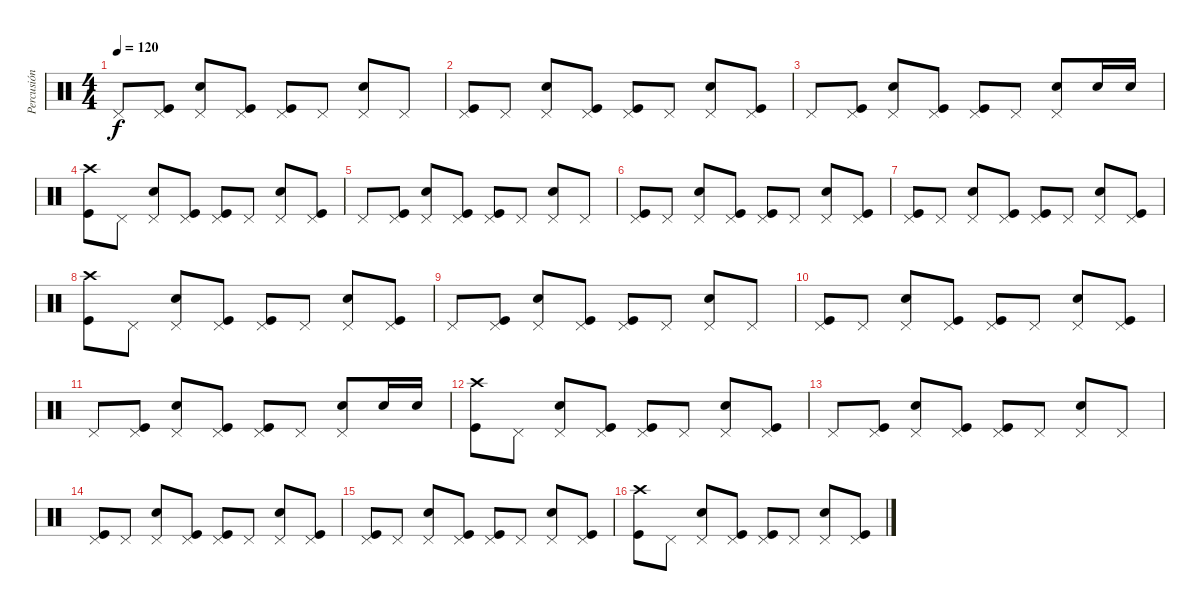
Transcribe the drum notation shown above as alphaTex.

\track ("Percusión" "Percusión") {instrument percussion}
\staff {score}
\articulation defaults
\ts (4 4)
\tempo 120
\clef neutral
\ks c "Pedal Hi-Hat (hit)".8{dy f}
("Pedal Hi-Hat (hit)" "Kick (hit)").8 ("Pedal Hi-Hat (hit)" "Electric Snare (hit)").8 ("Pedal Hi-Hat (hit)" "Kick (hit)").8 ("Pedal Hi-Hat (hit)" "Kick (hit)").8 "Pedal Hi-Hat (hit)".8 ("Pedal Hi-Hat (hit)" "Electric Snare (hit)").8 "Pedal Hi-Hat (hit)".8 |
("Pedal Hi-Hat (hit)" "Kick (hit)").8 "Pedal Hi-Hat (hit)".8 ("Pedal Hi-Hat (hit)" "Electric Snare (hit)").8 ("Pedal Hi-Hat (hit)" "Kick (hit)").8 ("Pedal Hi-Hat (hit)" "Kick (hit)").8 "Pedal Hi-Hat (hit)".8 ("Pedal Hi-Hat (hit)" "Electric Snare (hit)").8 ("Pedal Hi-Hat (hit)" "Kick (hit)").8 |
"Pedal Hi-Hat (hit)".8 ("Pedal Hi-Hat (hit)" "Kick (hit)").8 ("Pedal Hi-Hat (hit)" "Electric Snare (hit)").8 ("Pedal Hi-Hat (hit)" "Kick (hit)").8 ("Pedal Hi-Hat (hit)" "Kick (hit)").8 "Pedal Hi-Hat (hit)".8 ("Pedal Hi-Hat (hit)" "Electric Snare (hit)").8 "Electric Snare (hit)".16 "Electric Snare (hit)".16 |
("Crash high (hit)" "Kick (hit)").8 "Pedal Hi-Hat (hit)".8 ("Pedal Hi-Hat (hit)" "Electric Snare (hit)").8 ("Pedal Hi-Hat (hit)" "Kick (hit)").8 ("Pedal Hi-Hat (hit)" "Kick (hit)").8 "Pedal Hi-Hat (hit)".8 ("Pedal Hi-Hat (hit)" "Electric Snare (hit)").8 ("Pedal Hi-Hat (hit)" "Kick (hit)").8 |
"Pedal Hi-Hat (hit)".8 ("Pedal Hi-Hat (hit)" "Kick (hit)").8 ("Pedal Hi-Hat (hit)" "Electric Snare (hit)").8 ("Pedal Hi-Hat (hit)" "Kick (hit)").8 ("Pedal Hi-Hat (hit)" "Kick (hit)").8 "Pedal Hi-Hat (hit)".8 ("Pedal Hi-Hat (hit)" "Electric Snare (hit)").8 "Pedal Hi-Hat (hit)".8 |
("Pedal Hi-Hat (hit)" "Kick (hit)").8 "Pedal Hi-Hat (hit)".8 ("Pedal Hi-Hat (hit)" "Electric Snare (hit)").8 ("Pedal Hi-Hat (hit)" "Kick (hit)").8 ("Pedal Hi-Hat (hit)" "Kick (hit)").8 "Pedal Hi-Hat (hit)".8 ("Pedal Hi-Hat (hit)" "Electric Snare (hit)").8 ("Pedal Hi-Hat (hit)" "Kick (hit)").8 |
("Pedal Hi-Hat (hit)" "Kick (hit)").8 "Pedal Hi-Hat (hit)".8 ("Pedal Hi-Hat (hit)" "Electric Snare (hit)").8 ("Pedal Hi-Hat (hit)" "Kick (hit)").8 ("Pedal Hi-Hat (hit)" "Kick (hit)").8 "Pedal Hi-Hat (hit)".8 ("Pedal Hi-Hat (hit)" "Electric Snare (hit)").8 ("Pedal Hi-Hat (hit)" "Kick (hit)").8 |
("Crash high (hit)" "Kick (hit)").8 "Pedal Hi-Hat (hit)".8 ("Pedal Hi-Hat (hit)" "Electric Snare (hit)").8 ("Pedal Hi-Hat (hit)" "Kick (hit)").8 ("Pedal Hi-Hat (hit)" "Kick (hit)").8 "Pedal Hi-Hat (hit)".8 ("Pedal Hi-Hat (hit)" "Electric Snare (hit)").8 ("Pedal Hi-Hat (hit)" "Kick (hit)").8 |
"Pedal Hi-Hat (hit)".8 ("Pedal Hi-Hat (hit)" "Kick (hit)").8 ("Pedal Hi-Hat (hit)" "Electric Snare (hit)").8 ("Pedal Hi-Hat (hit)" "Kick (hit)").8 ("Pedal Hi-Hat (hit)" "Kick (hit)").8 "Pedal Hi-Hat (hit)".8 ("Pedal Hi-Hat (hit)" "Electric Snare (hit)").8 "Pedal Hi-Hat (hit)".8 |
("Pedal Hi-Hat (hit)" "Kick (hit)").8 "Pedal Hi-Hat (hit)".8 ("Pedal Hi-Hat (hit)" "Electric Snare (hit)").8 ("Pedal Hi-Hat (hit)" "Kick (hit)").8 ("Pedal Hi-Hat (hit)" "Kick (hit)").8 "Pedal Hi-Hat (hit)".8 ("Pedal Hi-Hat (hit)" "Electric Snare (hit)").8 ("Pedal Hi-Hat (hit)" "Kick (hit)").8 |
"Pedal Hi-Hat (hit)".8 ("Pedal Hi-Hat (hit)" "Kick (hit)").8 ("Pedal Hi-Hat (hit)" "Electric Snare (hit)").8 ("Pedal Hi-Hat (hit)" "Kick (hit)").8 ("Pedal Hi-Hat (hit)" "Kick (hit)").8 "Pedal Hi-Hat (hit)".8 ("Pedal Hi-Hat (hit)" "Electric Snare (hit)").8 "Electric Snare (hit)".16 "Electric Snare (hit)".16 |
("Crash high (hit)" "Kick (hit)").8 "Pedal Hi-Hat (hit)".8 ("Pedal Hi-Hat (hit)" "Electric Snare (hit)").8 ("Pedal Hi-Hat (hit)" "Kick (hit)").8 ("Pedal Hi-Hat (hit)" "Kick (hit)").8 "Pedal Hi-Hat (hit)".8 ("Pedal Hi-Hat (hit)" "Electric Snare (hit)").8 ("Pedal Hi-Hat (hit)" "Kick (hit)").8 |
"Pedal Hi-Hat (hit)".8 ("Pedal Hi-Hat (hit)" "Kick (hit)").8 ("Pedal Hi-Hat (hit)" "Electric Snare (hit)").8 ("Pedal Hi-Hat (hit)" "Kick (hit)").8 ("Pedal Hi-Hat (hit)" "Kick (hit)").8 "Pedal Hi-Hat (hit)".8 ("Pedal Hi-Hat (hit)" "Electric Snare (hit)").8 "Pedal Hi-Hat (hit)".8 |
("Pedal Hi-Hat (hit)" "Kick (hit)").8 "Pedal Hi-Hat (hit)".8 ("Pedal Hi-Hat (hit)" "Electric Snare (hit)").8 ("Pedal Hi-Hat (hit)" "Kick (hit)").8 ("Pedal Hi-Hat (hit)" "Kick (hit)").8 "Pedal Hi-Hat (hit)".8 ("Pedal Hi-Hat (hit)" "Electric Snare (hit)").8 ("Pedal Hi-Hat (hit)" "Kick (hit)").8 |
("Pedal Hi-Hat (hit)" "Kick (hit)").8 "Pedal Hi-Hat (hit)".8 ("Pedal Hi-Hat (hit)" "Electric Snare (hit)").8 ("Pedal Hi-Hat (hit)" "Kick (hit)").8 ("Pedal Hi-Hat (hit)" "Kick (hit)").8 "Pedal Hi-Hat (hit)".8 ("Pedal Hi-Hat (hit)" "Electric Snare (hit)").8 ("Pedal Hi-Hat (hit)" "Kick (hit)").8 |
("Crash high (hit)" "Kick (hit)").8 "Pedal Hi-Hat (hit)".8 ("Pedal Hi-Hat (hit)" "Electric Snare (hit)").8 ("Pedal Hi-Hat (hit)" "Kick (hit)").8 ("Pedal Hi-Hat (hit)" "Kick (hit)").8 "Pedal Hi-Hat (hit)".8 ("Pedal Hi-Hat (hit)" "Electric Snare (hit)").8 ("Pedal Hi-Hat (hit)" "Kick (hit)").8
